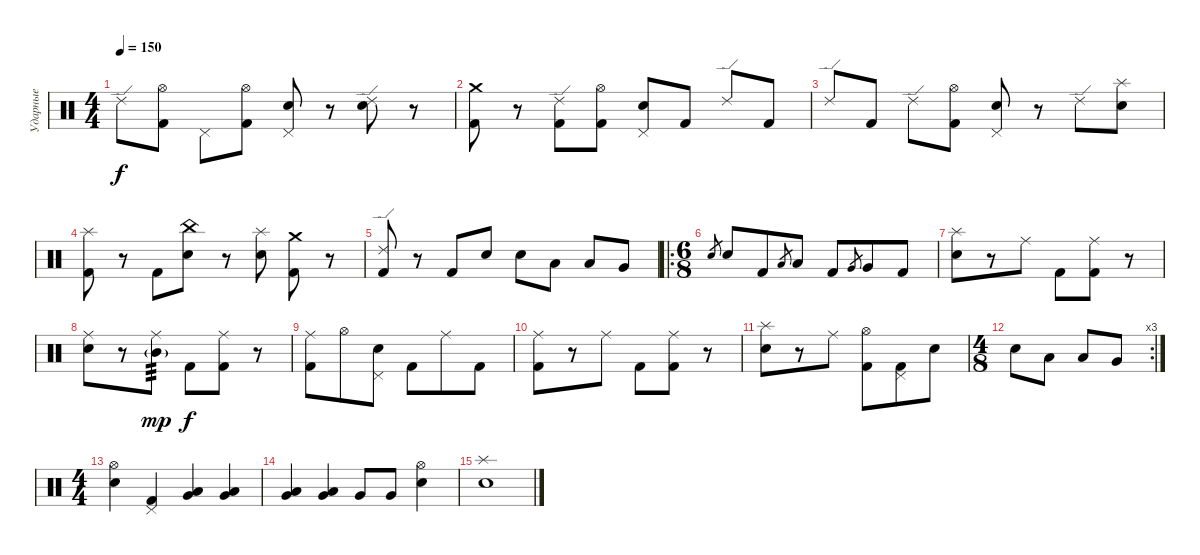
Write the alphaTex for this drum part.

\track ("Ударные" "Ударные") {instrument percussion}
\staff {score}
\articulation defaults
\ts (4 4)
\tempo 150
\clef neutral
\ks c "Ride (edge) 2".8{dy f}
("Hi-Hat (open)" "Kick (hit) 2").8 "Pedal Hi-Hat (hit)".8 ("Hi-Hat (open)" "Kick (hit) 2").8 ("Pedal Hi-Hat (hit)" "Electric Snare (hit)").8 r.8 ("Ride (edge) 2" "Electric Snare (hit)").8 r.8 |
("Crash medium (hit)" "Kick (hit) 2").8 r.8 ("Ride (edge) 2" "Kick (hit) 2").8 ("Hi-Hat (open)" "Kick (hit) 2").8 ("Pedal Hi-Hat (hit)" "Electric Snare (hit)").8 "Kick (hit) 2".8 "Ride (edge) 2".8 "Kick (hit) 2".8 |
"Ride (edge) 2".8 "Kick (hit) 2".8 "Ride (edge) 2".8 ("Hi-Hat (open)" "Kick (hit) 2").8 ("Pedal Hi-Hat (hit)" "Electric Snare (hit)").8 r.8 "Ride (edge) 2".8 ("Splash (hit)" "Electric Snare (hit)").8 |
("Splash (hit)" "Kick (hit) 2").8 r.8 "Kick (hit) 2".8 ("China (hit)" "Electric Snare (hit)").8 r.8 ("Splash (hit)" "Electric Snare (hit)").8 ("Crash medium (hit)" "Kick (hit) 2").8 r.8 |
("Ride (edge) 2" "Kick (hit) 2").8 r.8 "Kick (hit) 2".8 "Electric Snare (hit)".8 "Electric Snare (hit)".8 "Low Tom (hit)".8 "Low Tom (hit)".8 "Very Low Tom (hit)".8 |
\ro
\ts (6 8)
"Electric Snare (hit)".8{gr} "Electric Snare (hit)".8 "Kick (hit) 2".8 "Low Tom (hit)".8{gr} "Low Tom (hit)".8 "Kick (hit) 2".8 "Very Low Tom (hit)".8{gr} "Very Low Tom (hit)".8 "Kick (hit) 2".8 |
("Splash (hit)" "Electric Snare (hit)").8 r.8 "Ride (middle)".8 "Kick (hit) 2".8 ("Ride (middle)" "Kick (hit) 2").8 r.8 |
("Ride (middle)" "Electric Snare (hit)").8 r.8 ("Ride (middle)" "Mid Tom (hit)"{g}).8{tp 3 dy mp} "Kick (hit) 2".8{dy f} ("Ride (middle)" "Kick (hit) 2").8 r.8 |
("Ride (middle)" "Kick (hit) 2").8 "Hi-Hat (open)".8 ("Pedal Hi-Hat (hit)" "Electric Snare (hit)").8 "Kick (hit) 2".8 "Ride (middle)".8 "Kick (hit) 2".8 |
("Ride (middle)" "Kick (hit) 2").8 r.8 "Ride (middle)".8 "Kick (hit) 2".8 ("Ride (middle)" "Kick (hit) 2").8 r.8 |
("Splash (hit)" "Electric Snare (hit)").8 r.8 "Ride (middle)".8 ("Hi-Hat (open)" "Kick (hit) 2").8 ("Pedal Hi-Hat (hit)" "Kick (hit) 2").8 "Electric Snare (hit)".8 |
\rc 3
\ts (4 8)
"Electric Snare (hit)".8 "Low Tom (hit)".8 "Low Tom (hit)".8 "Very Low Tom (hit)".8 |
\ts (4 4)
("Hi-Hat (open)" "Electric Snare (hit)").4 ("Pedal Hi-Hat (hit)" "Kick (hit) 2").4 ("Low Tom (hit)" "Very Low Tom (hit)").4 ("Low Tom (hit)" "Very Low Tom (hit)").4 |
("Low Tom (hit)" "Very Low Tom (hit)").4 ("Low Tom (hit)" "Very Low Tom (hit)").4 "Very Low Tom (hit)".8 "Very Low Tom (hit)".8 ("Hi-Hat (open)" "Electric Snare (hit)").4 |
("Splash (hit)" "Electric Snare (hit)").1
